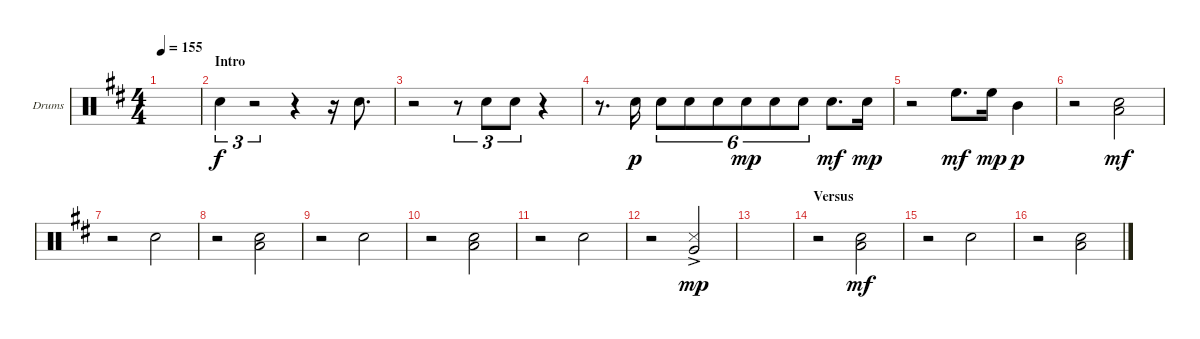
\bracketExtendMode groupsimilarinstruments
\firstSystemTrackNameOrientation horizontal
\otherSystemsTrackNameOrientation horizontal
\track ("Drums" "Drums") {instrument percussion}
\staff {score}
\articulation defaults
\ts (4 4)
\tempo 155
\clef neutral
\ks d
|
\section ("" "Intro")
"Snare (hit) 2".4{tu (3 2)} r.2{tu (3 2)} r.4 r.16 "Snare (hit) 2".8{d} |
r.2 r.8{tu (3 2)} "Snare (hit) 2".8{tu (3 2)} "Snare (hit) 2".8{tu (3 2)} r.4 |
r.8{d} "Snare (hit) 2".16{dy p} "Snare (hit) 2".8{tu (6 4)} "Snare (hit) 2".8{tu (6 4)} "Snare (hit) 2".8{tu (6 4)} "Snare (hit) 2".8{tu (6 4) dy mp} "Snare (hit) 2".8{tu (6 4)} "Snare (hit) 2".8{tu (6 4)} "Snare (hit) 2".8{d dy mf} "Snare (hit) 2".16{dy mp} |
r.2 "High Floor Tom (hit)".8{d dy mf} "High Floor Tom (hit)".16{dy mp} "Mid Tom (hit)".4{dy p} |
r.2 ("Snare (hit) 2" "Low Tom (hit)").2{dy mf} |
r.2 "Snare (hit) 2".2 |
r.2 ("Snare (hit) 2" "Low Tom (hit)").2 |
r.2 "Snare (hit) 2".2 |
r.2 ("Snare (hit) 2" "Low Tom (hit)").2 |
r.2 "Snare (hit) 2".2 |
r.2 ("Snare (side stick) 3" "Very Low Tom (hit)"{ac}).2{dy mp} |
|
\section ("" "Versus")
r.2 ("Snare (hit) 2" "Low Tom (hit)").2{dy mf} |
r.2 "Snare (hit) 2".2 |
r.2 ("Snare (hit) 2" "Low Tom (hit)").2
